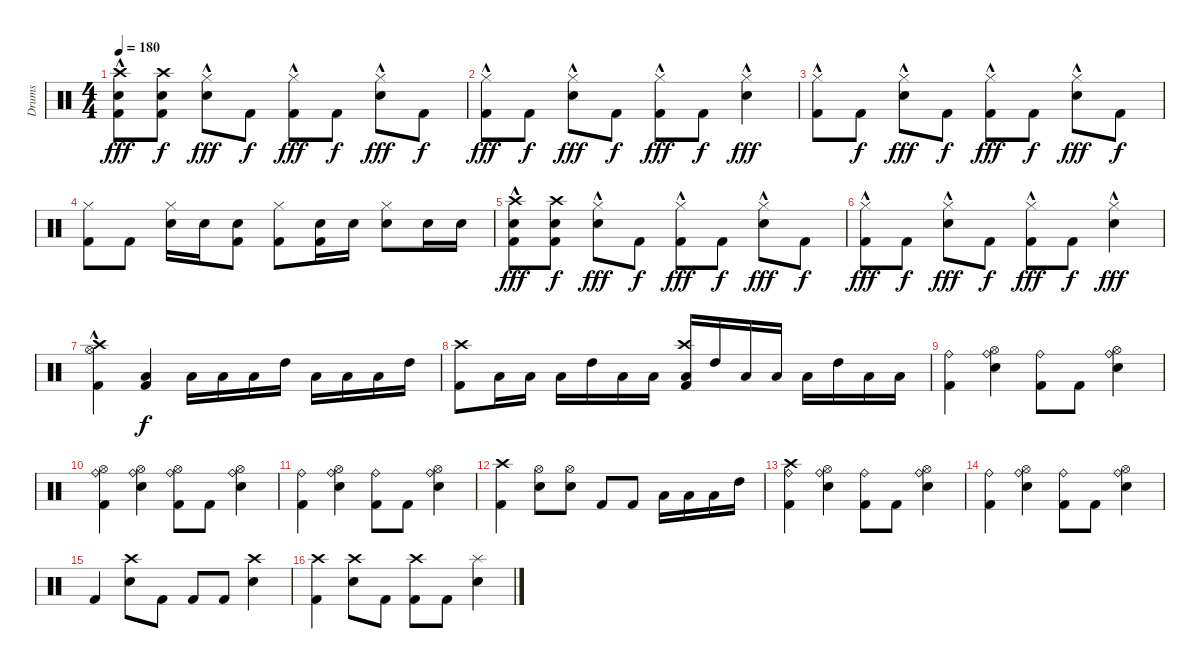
\track ("Drums" "Drums") {instrument percussion}
\staff {score}
\articulation defaults
\ts (4 4)
\tempo 180
\clef neutral
\ks c
("Kick (hit) 2" "Electric Snare (hit)" "Crash high (hit)"{hac}).8{dy fff} ("Kick (hit) 2" "Electric Snare (hit)" "Crash high (hit)").8{dy f} ("Electric Snare (hit)" "Hi-Hat (closed)"{hac}).8{dy fff} "Kick (hit) 2".8{dy f} ("Kick (hit) 2" "Hi-Hat (closed)"{hac}).8{dy fff} "Kick (hit) 2".8{dy f} ("Electric Snare (hit)" "Hi-Hat (closed)"{hac}).8{dy fff} "Kick (hit) 2".8{dy f} |
("Kick (hit) 2" "Hi-Hat (closed)"{hac}).8{dy fff} "Kick (hit) 2".8{dy f} ("Electric Snare (hit)" "Hi-Hat (closed)"{hac}).8{dy fff} "Kick (hit) 2".8{dy f} ("Kick (hit) 2" "Hi-Hat (closed)"{hac}).8{dy fff} "Kick (hit) 2".8{dy f} ("Electric Snare (hit)" "Hi-Hat (closed)"{hac}).4{dy fff} |
("Kick (hit) 2" "Hi-Hat (closed)"{hac}).8 "Kick (hit) 2".8{dy f} ("Electric Snare (hit)" "Hi-Hat (closed)"{hac}).8{dy fff} "Kick (hit) 2".8{dy f} ("Kick (hit) 2" "Hi-Hat (closed)"{hac}).8{dy fff} "Kick (hit) 2".8{dy f} ("Electric Snare (hit)" "Hi-Hat (closed)"{hac}).8{dy fff} "Kick (hit) 2".8{dy f} |
("Kick (hit) 2" "Hi-Hat (closed)").8 "Kick (hit) 2".8 ("Electric Snare (hit)" "Hi-Hat (closed)").16 "Electric Snare (hit)".16 ("Kick (hit) 2" "Electric Snare (hit)").8 ("Kick (hit) 2" "Hi-Hat (closed)").8 ("Kick (hit) 2" "Electric Snare (hit)").16 "Electric Snare (hit)".16 ("Electric Snare (hit)" "Hi-Hat (closed)").8 "Electric Snare (hit)".16 "Electric Snare (hit)".16 |
("Kick (hit) 2" "Electric Snare (hit)" "Crash high (hit)"{hac}).8{dy fff} ("Kick (hit) 2" "Electric Snare (hit)" "Crash high (hit)").8{dy f} ("Electric Snare (hit)" "Hi-Hat (closed)"{hac}).8{dy fff} "Kick (hit) 2".8{dy f} ("Kick (hit) 2" "Hi-Hat (closed)"{hac}).8{dy fff} "Kick (hit) 2".8{dy f} ("Electric Snare (hit)" "Hi-Hat (closed)"{hac}).8{dy fff} "Kick (hit) 2".8{dy f} |
("Kick (hit) 2" "Hi-Hat (closed)"{hac}).8{dy fff} "Kick (hit) 2".8{dy f} ("Electric Snare (hit)" "Hi-Hat (closed)"{hac}).8{dy fff} "Kick (hit) 2".8{dy f} ("Kick (hit) 2" "Hi-Hat (closed)"{hac}).8{dy fff} "Kick (hit) 2".8{dy f} ("Electric Snare (hit)" "Hi-Hat (closed)"{hac}).4{dy fff} |
("Kick (hit) 2" "Hi-Hat (open)"{hac} "Crash high (hit)").4 ("Kick (hit) 2" "Low Tom (hit)").4{dy f} "Low Floor Tom (hit)".16 "Low Floor Tom (hit)".16 "Low Tom (hit)".16 "High Tom (hit)".16 "Low Floor Tom (hit)".16 "Low Floor Tom (hit)".16 "Low Tom (hit)".16 "High Tom (hit)".16 |
("Kick (hit) 2" "Crash high (hit)").8 "Low Floor Tom (hit)".16 "Low Floor Tom (hit)".16 "Low Tom (hit)".16 "High Tom (hit)".16 "Low Floor Tom (hit)".16 "Low Floor Tom (hit)".16 ("Kick (hit) 2" "Low Tom (hit)" "Crash high (hit)").16 "High Tom (hit)".16 "Low Floor Tom (hit)".16 "Low Floor Tom (hit)".16 "Low Tom (hit)".16 "High Tom (hit)".16 "Low Floor Tom (hit)".16 "Low Floor Tom (hit)".16 |
("Kick (hit) 2" "Ride (bell)").4 ("Hi-Hat (open)" "Electric Snare (hit)" "Ride (bell)").4 ("Kick (hit) 2" "Ride (bell)").8 "Kick (hit) 2".8 ("Hi-Hat (open)" "Electric Snare (hit)" "Ride (bell)").4 |
("Kick (hit) 2" "Hi-Hat (open)" "Ride (bell)").4 ("Hi-Hat (open)" "Electric Snare (hit)" "Ride (bell)").4 ("Kick (hit) 2" "Hi-Hat (open)" "Ride (bell)").8 "Kick (hit) 2".8 ("Hi-Hat (open)" "Electric Snare (hit)" "Ride (bell)").4 |
("Kick (hit) 2" "Ride (bell)").4 ("Hi-Hat (open)" "Electric Snare (hit)" "Ride (bell)").4 ("Kick (hit) 2" "Ride (bell)").8 "Kick (hit) 2".8 ("Hi-Hat (open)" "Electric Snare (hit)" "Ride (bell)").4 |
("Kick (hit) 2" "Crash high (hit)").4 ("Electric Snare (hit)" "Hi-Hat (open)").8 ("Electric Snare (hit)" "Hi-Hat (open)").8 "Kick (hit) 2".8 "Kick (hit) 2".8 "Low Floor Tom (hit)".16 "Low Floor Tom (hit)".16 "Low Tom (hit)".16 "High Tom (hit)".16 |
("Kick (hit) 2" "Ride (bell)" "Crash high (hit)").4 ("Hi-Hat (open)" "Electric Snare (hit)" "Ride (bell)").4 ("Kick (hit) 2" "Ride (bell)").8 "Kick (hit) 2".8 ("Hi-Hat (open)" "Electric Snare (hit)" "Ride (bell)").4 |
("Kick (hit) 2" "Ride (bell)").4 ("Hi-Hat (open)" "Electric Snare (hit)" "Ride (bell)").4 ("Kick (hit) 2" "Ride (bell)").8 "Kick (hit) 2".8 ("Hi-Hat (open)" "Electric Snare (hit)" "Ride (bell)").4 |
"Kick (hit) 2".4 ("Electric Snare (hit)" "Crash high (hit)").8 "Kick (hit) 2".8 "Kick (hit) 2".8 "Kick (hit) 2".8 ("Electric Snare (hit)" "Crash high (hit)").4 |
("Kick (hit) 2" "Crash high (hit)").4 ("Electric Snare (hit)" "Crash high (hit)").8 "Kick (hit) 2".8 ("Kick (hit) 2" "Crash high (hit)").8 "Kick (hit) 2".8 ("Electric Snare (hit)" "Splash (hit)").4
